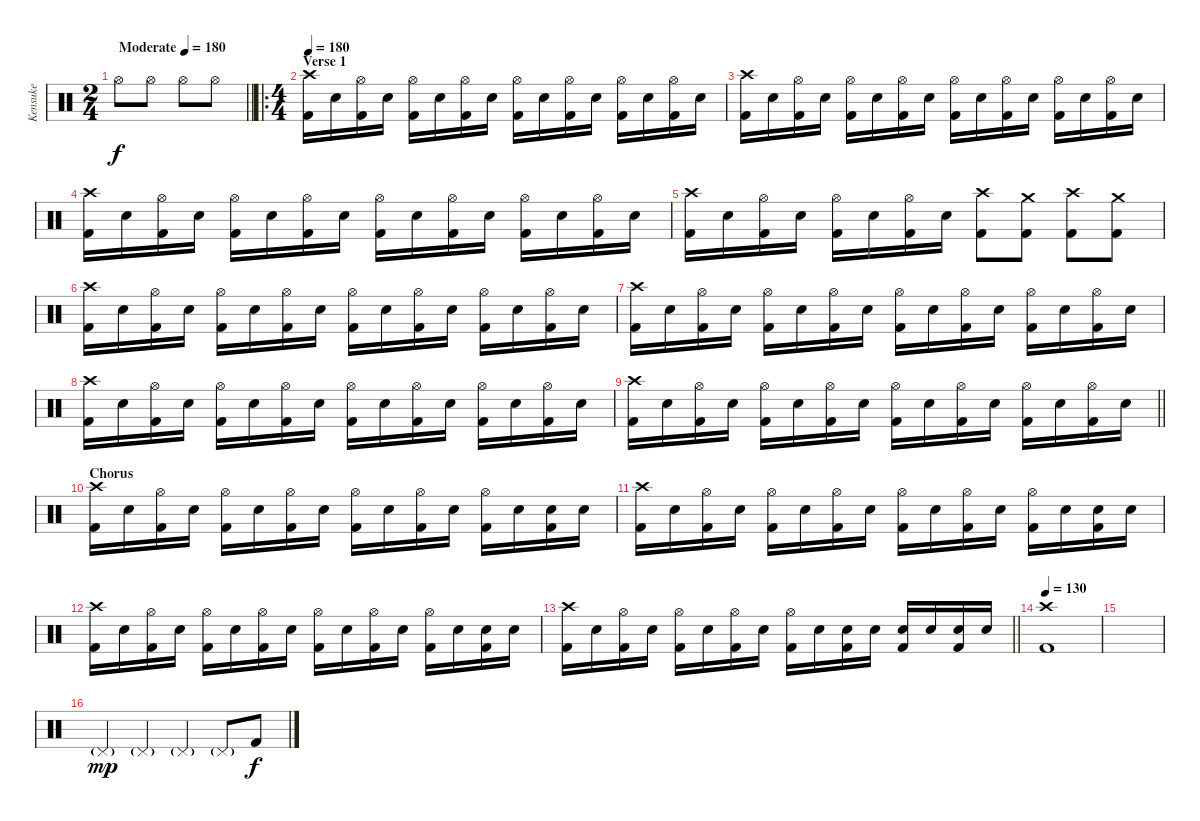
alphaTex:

\track ("Kensuke" "Kensuke") {instrument percussion}
\staff {score}
\articulation defaults
\ts (2 4)
\tempo (180 "Moderate")
\tempo 130
\tempo (180 "Moderate")
\clef neutral
\barLineRight lightlight
\ks c "Hi-Hat (open)".8{dy f} "Hi-Hat (open)".8 "Hi-Hat (open)".8 "Hi-Hat (open)".8
|
\ro
\ts (4 4)
\section ("" "Verse 1")
\tempo 180
("Crash high (hit)" "Kick (hit) 2").16 "Electric Snare (hit)".16 ("Hi-Hat (open)" "Kick (hit) 2").16 "Electric Snare (hit)".16 ("Hi-Hat (open)" "Kick (hit) 2").16 "Electric Snare (hit)".16 ("Hi-Hat (open)" "Kick (hit) 2").16 "Electric Snare (hit)".16 ("Hi-Hat (open)" "Kick (hit) 2").16 "Electric Snare (hit)".16 ("Hi-Hat (open)" "Kick (hit) 2").16 "Electric Snare (hit)".16 ("Hi-Hat (open)" "Kick (hit) 2").16 "Electric Snare (hit)".16 ("Hi-Hat (open)" "Kick (hit) 2").16 "Electric Snare (hit)".16 |
("Crash high (hit)" "Kick (hit) 2").16 "Electric Snare (hit)".16 ("Hi-Hat (open)" "Kick (hit) 2").16 "Electric Snare (hit)".16 ("Hi-Hat (open)" "Kick (hit) 2").16 "Electric Snare (hit)".16 ("Hi-Hat (open)" "Kick (hit) 2").16 "Electric Snare (hit)".16 ("Hi-Hat (open)" "Kick (hit) 2").16 "Electric Snare (hit)".16 ("Hi-Hat (open)" "Kick (hit) 2").16 "Electric Snare (hit)".16 ("Hi-Hat (open)" "Kick (hit) 2").16 "Electric Snare (hit)".16 ("Hi-Hat (open)" "Kick (hit) 2").16 "Electric Snare (hit)".16 |
("Crash high (hit)" "Kick (hit) 2").16 "Electric Snare (hit)".16 ("Hi-Hat (open)" "Kick (hit) 2").16 "Electric Snare (hit)".16 ("Hi-Hat (open)" "Kick (hit) 2").16 "Electric Snare (hit)".16 ("Hi-Hat (open)" "Kick (hit) 2").16 "Electric Snare (hit)".16 ("Hi-Hat (open)" "Kick (hit) 2").16 "Electric Snare (hit)".16 ("Hi-Hat (open)" "Kick (hit) 2").16 "Electric Snare (hit)".16 ("Hi-Hat (open)" "Kick (hit) 2").16 "Electric Snare (hit)".16 ("Hi-Hat (open)" "Kick (hit) 2").16 "Electric Snare (hit)".16 |
("Crash high (hit)" "Kick (hit) 2").16 "Electric Snare (hit)".16 ("Hi-Hat (open)" "Kick (hit) 2").16 "Electric Snare (hit)".16 ("Hi-Hat (open)" "Kick (hit) 2").16 "Electric Snare (hit)".16 ("Hi-Hat (open)" "Kick (hit) 2").16 "Electric Snare (hit)".16 ("Crash high (hit)" "Kick (hit) 2").8 ("Crash medium (hit)" "Kick (hit) 2").8 ("Crash high (hit)" "Kick (hit) 2").8 ("Crash medium (hit)" "Kick (hit) 2").8 |
("Crash high (hit)" "Kick (hit) 2").16 "Electric Snare (hit)".16 ("Hi-Hat (open)" "Kick (hit) 2").16 "Electric Snare (hit)".16 ("Hi-Hat (open)" "Kick (hit) 2").16 "Electric Snare (hit)".16 ("Hi-Hat (open)" "Kick (hit) 2").16 "Electric Snare (hit)".16 ("Hi-Hat (open)" "Kick (hit) 2").16 "Electric Snare (hit)".16 ("Hi-Hat (open)" "Kick (hit) 2").16 "Electric Snare (hit)".16 ("Hi-Hat (open)" "Kick (hit) 2").16 "Electric Snare (hit)".16 ("Hi-Hat (open)" "Kick (hit) 2").16 "Electric Snare (hit)".16 |
("Crash high (hit)" "Kick (hit) 2").16 "Electric Snare (hit)".16 ("Hi-Hat (open)" "Kick (hit) 2").16 "Electric Snare (hit)".16 ("Hi-Hat (open)" "Kick (hit) 2").16 "Electric Snare (hit)".16 ("Hi-Hat (open)" "Kick (hit) 2").16 "Electric Snare (hit)".16 ("Hi-Hat (open)" "Kick (hit) 2").16 "Electric Snare (hit)".16 ("Hi-Hat (open)" "Kick (hit) 2").16 "Electric Snare (hit)".16 ("Hi-Hat (open)" "Kick (hit) 2").16 "Electric Snare (hit)".16 ("Hi-Hat (open)" "Kick (hit) 2").16 "Electric Snare (hit)".16 |
("Crash high (hit)" "Kick (hit) 2").16 "Electric Snare (hit)".16 ("Hi-Hat (open)" "Kick (hit) 2").16 "Electric Snare (hit)".16 ("Hi-Hat (open)" "Kick (hit) 2").16 "Electric Snare (hit)".16 ("Hi-Hat (open)" "Kick (hit) 2").16 "Electric Snare (hit)".16 ("Hi-Hat (open)" "Kick (hit) 2").16 "Electric Snare (hit)".16 ("Hi-Hat (open)" "Kick (hit) 2").16 "Electric Snare (hit)".16 ("Hi-Hat (open)" "Kick (hit) 2").16 "Electric Snare (hit)".16 ("Hi-Hat (open)" "Kick (hit) 2").16 "Electric Snare (hit)".16 |
\barLineRight lightlight
("Crash high (hit)" "Kick (hit) 2").16 "Electric Snare (hit)".16 ("Hi-Hat (open)" "Kick (hit) 2").16 "Electric Snare (hit)".16 ("Hi-Hat (open)" "Kick (hit) 2").16 "Electric Snare (hit)".16 ("Hi-Hat (open)" "Kick (hit) 2").16 "Electric Snare (hit)".16 ("Hi-Hat (open)" "Kick (hit) 2").16 "Electric Snare (hit)".16 ("Hi-Hat (open)" "Kick (hit) 2").16 "Electric Snare (hit)".16 ("Hi-Hat (open)" "Kick (hit) 2").16 "Electric Snare (hit)".16 ("Hi-Hat (open)" "Kick (hit) 2").16 "Electric Snare (hit)".16 |
\section ("" "Chorus")
("Crash high (hit)" "Kick (hit) 2").16 "Electric Snare (hit)".16 ("Hi-Hat (open)" "Kick (hit) 2").16 "Electric Snare (hit)".16 ("Hi-Hat (open)" "Kick (hit) 2").16 "Electric Snare (hit)".16 ("Hi-Hat (open)" "Kick (hit) 2").16 "Electric Snare (hit)".16 ("Hi-Hat (open)" "Kick (hit) 2").16 "Electric Snare (hit)".16 ("Hi-Hat (open)" "Kick (hit) 2").16 "Electric Snare (hit)".16 ("Hi-Hat (open)" "Kick (hit) 2").16 "Electric Snare (hit)".16 ("Electric Snare (hit)" "Kick (hit) 2").16 "Electric Snare (hit)".16 |
("Crash high (hit)" "Kick (hit) 2").16 "Electric Snare (hit)".16 ("Hi-Hat (open)" "Kick (hit) 2").16 "Electric Snare (hit)".16 ("Hi-Hat (open)" "Kick (hit) 2").16 "Electric Snare (hit)".16 ("Hi-Hat (open)" "Kick (hit) 2").16 "Electric Snare (hit)".16 ("Hi-Hat (open)" "Kick (hit) 2").16 "Electric Snare (hit)".16 ("Hi-Hat (open)" "Kick (hit) 2").16 "Electric Snare (hit)".16 ("Hi-Hat (open)" "Kick (hit) 2").16 "Electric Snare (hit)".16 ("Electric Snare (hit)" "Kick (hit) 2").16 "Electric Snare (hit)".16 |
("Crash high (hit)" "Kick (hit) 2").16 "Electric Snare (hit)".16 ("Hi-Hat (open)" "Kick (hit) 2").16 "Electric Snare (hit)".16 ("Hi-Hat (open)" "Kick (hit) 2").16 "Electric Snare (hit)".16 ("Hi-Hat (open)" "Kick (hit) 2").16 "Electric Snare (hit)".16 ("Hi-Hat (open)" "Kick (hit) 2").16 "Electric Snare (hit)".16 ("Hi-Hat (open)" "Kick (hit) 2").16 "Electric Snare (hit)".16 ("Hi-Hat (open)" "Kick (hit) 2").16 "Electric Snare (hit)".16 ("Electric Snare (hit)" "Kick (hit) 2").16 "Electric Snare (hit)".16 |
\barLineRight lightlight
("Crash high (hit)" "Kick (hit) 2").16 "Electric Snare (hit)".16 ("Hi-Hat (open)" "Kick (hit) 2").16 "Electric Snare (hit)".16 ("Hi-Hat (open)" "Kick (hit) 2").16 "Electric Snare (hit)".16 ("Hi-Hat (open)" "Kick (hit) 2").16 "Electric Snare (hit)".16 ("Hi-Hat (open)" "Kick (hit) 2").16 "Electric Snare (hit)".16 ("Electric Snare (hit)" "Kick (hit) 2").16 "Electric Snare (hit)".16 ("Electric Snare (hit)" "Kick (hit) 2").16 "Electric Snare (hit)".16 ("Electric Snare (hit)" "Kick (hit) 2").16 "Electric Snare (hit)".16 |
\section ("" "")
\tempo 130
("Crash high (hit)" "Kick (hit) 2").1 |
|
"Pedal Hi-Hat (hit)"{g}.4{dy mp} "Pedal Hi-Hat (hit)"{g}.4 "Pedal Hi-Hat (hit)"{g}.4 "Pedal Hi-Hat (hit)"{g}.8 "Kick (hit) 2".8{dy f}
